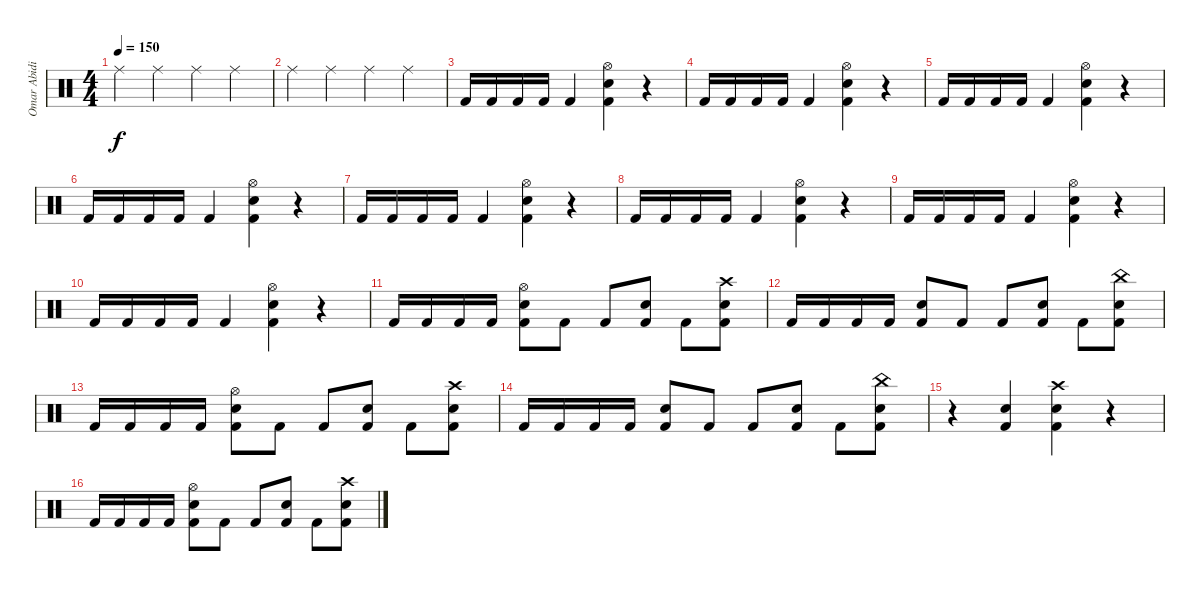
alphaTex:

\track ("Omar Abidi" "Omar Abidi") {instrument percussion}
\staff {score}
\articulation defaults
\ts (4 4)
\tempo 150
\clef neutral
\ks c "Ride (middle)".4{dy f} "Ride (middle)".4 "Ride (middle)".4 "Ride (middle)".4
|
"Ride (middle)".4 "Ride (middle)".4 "Ride (middle)".4 "Ride (middle)".4 |
"Kick (hit) 2".16 "Kick (hit) 2".16 "Kick (hit) 2".16 "Kick (hit) 2".16 "Kick (hit) 2".4 ("Snare (hit) 2" "Hi-Hat (open)" "Kick (hit) 2").4 r.4 |
"Kick (hit) 2".16 "Kick (hit) 2".16 "Kick (hit) 2".16 "Kick (hit) 2".16 "Kick (hit) 2".4 ("Snare (hit) 2" "Hi-Hat (open)" "Kick (hit) 2").4 r.4 |
"Kick (hit) 2".16 "Kick (hit) 2".16 "Kick (hit) 2".16 "Kick (hit) 2".16 "Kick (hit) 2".4 ("Snare (hit) 2" "Hi-Hat (open)" "Kick (hit) 2").4 r.4 |
"Kick (hit) 2".16 "Kick (hit) 2".16 "Kick (hit) 2".16 "Kick (hit) 2".16 "Kick (hit) 2".4 ("Snare (hit) 2" "Hi-Hat (open)" "Kick (hit) 2").4 r.4 |
"Kick (hit) 2".16 "Kick (hit) 2".16 "Kick (hit) 2".16 "Kick (hit) 2".16 "Kick (hit) 2".4 ("Snare (hit) 2" "Hi-Hat (open)" "Kick (hit) 2").4 r.4 |
"Kick (hit) 2".16 "Kick (hit) 2".16 "Kick (hit) 2".16 "Kick (hit) 2".16 "Kick (hit) 2".4 ("Snare (hit) 2" "Hi-Hat (open)" "Kick (hit) 2").4 r.4 |
"Kick (hit) 2".16 "Kick (hit) 2".16 "Kick (hit) 2".16 "Kick (hit) 2".16 "Kick (hit) 2".4 ("Snare (hit) 2" "Hi-Hat (open)" "Kick (hit) 2").4 r.4 |
"Kick (hit) 2".16 "Kick (hit) 2".16 "Kick (hit) 2".16 "Kick (hit) 2".16 "Kick (hit) 2".4 ("Snare (hit) 2" "Hi-Hat (open)" "Kick (hit) 2").4 r.4 |
"Kick (hit) 2".16 "Kick (hit) 2".16 "Kick (hit) 2".16 "Kick (hit) 2".16 ("Hi-Hat (open)" "Snare (hit) 2" "Kick (hit) 2").8 "Kick (hit) 2".8 "Kick (hit) 2".8 ("Snare (hit) 2" "Kick (hit) 2").8 "Kick (hit) 2".8 ("Crash high (hit)" "Snare (hit) 2" "Kick (hit) 2").8 |
"Kick (hit) 2".16 "Kick (hit) 2".16 "Kick (hit) 2".16 "Kick (hit) 2".16 ("Snare (hit) 2" "Kick (hit) 2").8 "Kick (hit) 2".8 "Kick (hit) 2".8 ("Snare (hit) 2" "Kick (hit) 2").8 "Kick (hit) 2".8 ("China (hit)" "Snare (hit) 2" "Kick (hit) 2").8 |
"Kick (hit) 2".16 "Kick (hit) 2".16 "Kick (hit) 2".16 "Kick (hit) 2".16 ("Hi-Hat (open)" "Snare (hit) 2" "Kick (hit) 2").8 "Kick (hit) 2".8 "Kick (hit) 2".8 ("Snare (hit) 2" "Kick (hit) 2").8 "Kick (hit) 2".8 ("Crash high (hit)" "Snare (hit) 2" "Kick (hit) 2").8 |
"Kick (hit) 2".16 "Kick (hit) 2".16 "Kick (hit) 2".16 "Kick (hit) 2".16 ("Snare (hit) 2" "Kick (hit) 2").8 "Kick (hit) 2".8 "Kick (hit) 2".8 ("Snare (hit) 2" "Kick (hit) 2").8 "Kick (hit) 2".8 ("China (hit)" "Snare (hit) 2" "Kick (hit) 2").8 |
r.4 ("Snare (hit) 2" "Kick (hit) 2").4 ("Crash high (hit)" "Snare (hit) 2" "Kick (hit) 2").4 r.4 |
"Kick (hit) 2".16 "Kick (hit) 2".16 "Kick (hit) 2".16 "Kick (hit) 2".16 ("Hi-Hat (open)" "Snare (hit) 2" "Kick (hit) 2").8 "Kick (hit) 2".8 "Kick (hit) 2".8 ("Snare (hit) 2" "Kick (hit) 2").8 "Kick (hit) 2".8 ("Crash high (hit)" "Snare (hit) 2" "Kick (hit) 2").8
